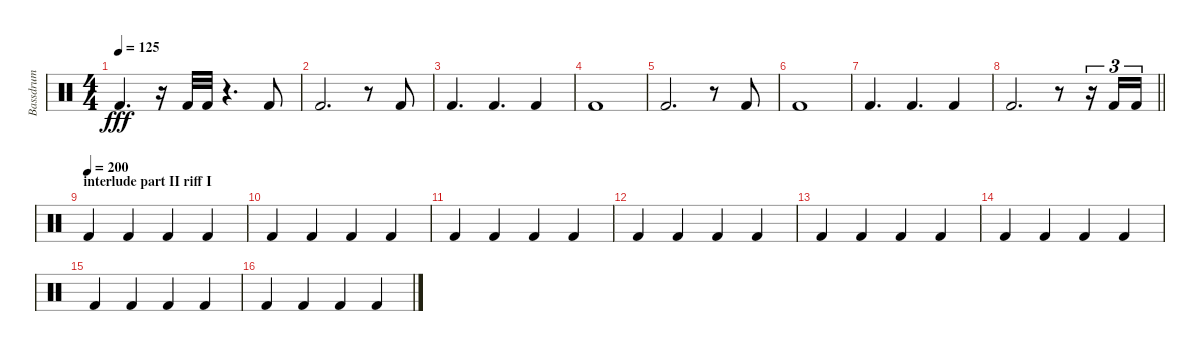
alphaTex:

\track ("Bassdrum" "Bassdrum") {instrument percussion}
\staff {score}
\articulation defaults
\ts (4 4)
\tempo 125
\clef neutral
\ks c "Kick (hit) 2".4{d dy fff}
r.16 "Kick (hit) 2".32 "Kick (hit) 2".32 r.4{d} "Kick (hit) 2".8 |
"Kick (hit) 2".2{d} r.8 "Kick (hit) 2".8 |
"Kick (hit) 2".4{d} "Kick (hit) 2".4{d} "Kick (hit) 2".4 |
"Kick (hit) 2".1 |
"Kick (hit) 2".2{d} r.8 "Kick (hit) 2".8 |
"Kick (hit) 2".1 |
"Kick (hit) 2".4{d} "Kick (hit) 2".4{d} "Kick (hit) 2".4 |
\barLineRight lightlight "Kick (hit) 2".2{d}
r.8 r.16{tu (3 2)} "Kick (hit) 2".16{tu (3 2)} "Kick (hit) 2".16{tu (3 2)} |
\section ("" "interlude part II riff I")
\tempo (200)
"Kick (hit) 2".4 "Kick (hit) 2".4 "Kick (hit) 2".4 "Kick (hit) 2".4 |
"Kick (hit) 2".4 "Kick (hit) 2".4 "Kick (hit) 2".4 "Kick (hit) 2".4 |
"Kick (hit) 2".4 "Kick (hit) 2".4 "Kick (hit) 2".4 "Kick (hit) 2".4 |
"Kick (hit) 2".4 "Kick (hit) 2".4 "Kick (hit) 2".4 "Kick (hit) 2".4 |
"Kick (hit) 2".4 "Kick (hit) 2".4 "Kick (hit) 2".4 "Kick (hit) 2".4 |
"Kick (hit) 2".4 "Kick (hit) 2".4 "Kick (hit) 2".4 "Kick (hit) 2".4 |
"Kick (hit) 2".4 "Kick (hit) 2".4 "Kick (hit) 2".4 "Kick (hit) 2".4 |
"Kick (hit) 2".4 "Kick (hit) 2".4 "Kick (hit) 2".4 "Kick (hit) 2".4
